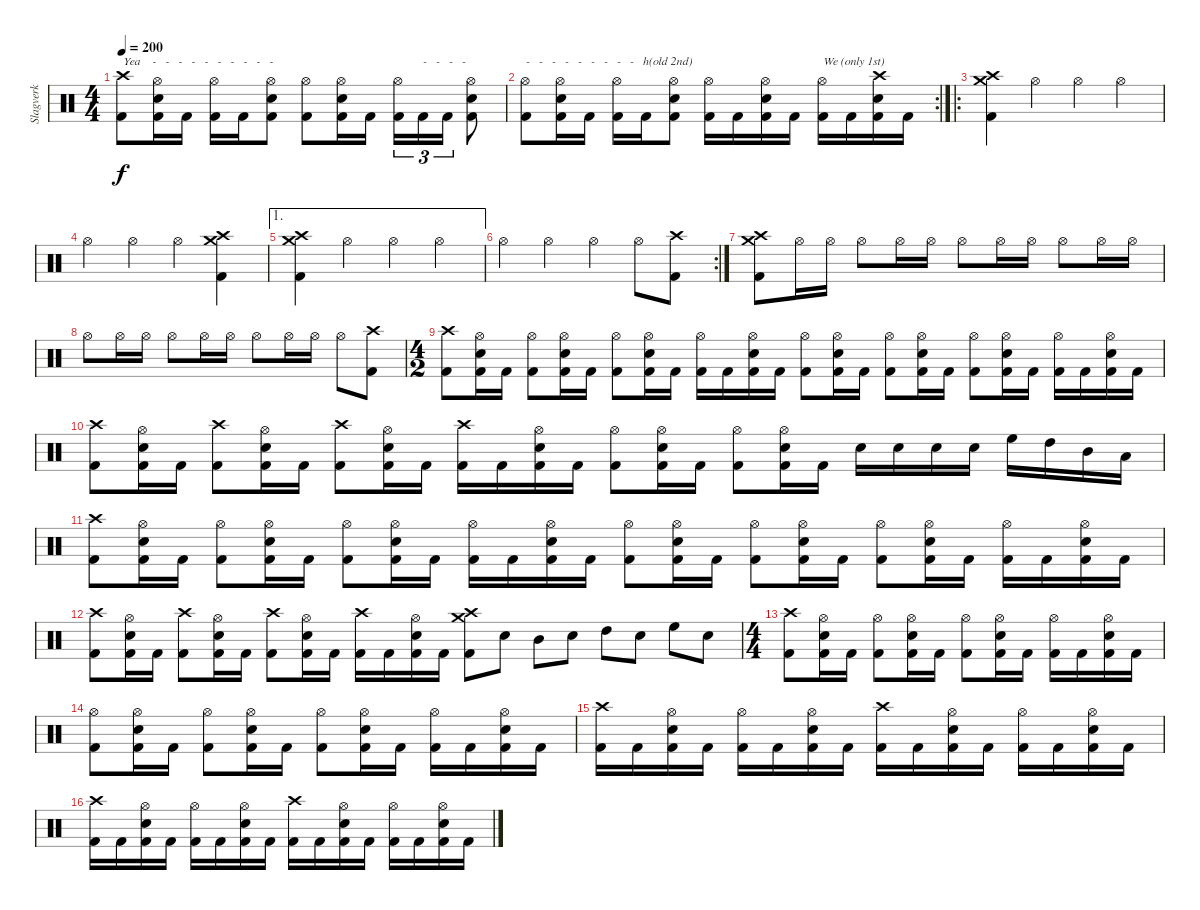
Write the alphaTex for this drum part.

\track ("Slagverk" "Slagverk") {instrument percussion}
\staff {score}
\articulation defaults
\ts (4 4)
\tempo 200
\clef neutral
\ks c
("Kick (hit) 2" "Crash high (hit)").8{txt "Yea    -   -   -   -   -   -   -   -   -   -     " dy f} ("Kick (hit) 2" "Electric Snare (hit)" "Hi-Hat (open)").16 "Kick (hit) 2".16 ("Kick (hit) 2" "Hi-Hat (open)").16 "Kick (hit) 2".16 ("Kick (hit) 2" "Electric Snare (hit)" "Hi-Hat (open)").8 ("Kick (hit) 2" "Hi-Hat (open)").8 ("Kick (hit) 2" "Electric Snare (hit)" "Hi-Hat (open)").16 "Kick (hit) 2".16 ("Kick (hit) 2" "Hi-Hat (open)").16{tu (3 2)} "Kick (hit) 2".16{tu (3 2) txt "-   -   -   -"} "Kick (hit) 2".16{tu (3 2)} ("Kick (hit) 2" "Electric Snare (hit)" "Hi-Hat (open)").8 |
\rc 2
("Kick (hit) 2" "Hi-Hat (open)").8{txt "-   -   -   -   -   -   -   -   -   h(old 2nd)"} ("Kick (hit) 2" "Electric Snare (hit)" "Hi-Hat (open)").16 "Kick (hit) 2".16 ("Kick (hit) 2" "Hi-Hat (open)").16 "Kick (hit) 2".16 ("Kick (hit) 2" "Electric Snare (hit)" "Hi-Hat (open)").8 ("Kick (hit) 2" "Hi-Hat (open)").16 "Kick (hit) 2".16 ("Kick (hit) 2" "Electric Snare (hit)" "Hi-Hat (open)").16 "Kick (hit) 2".16 ("Kick (hit) 2" "Hi-Hat (open)").16{txt "We (only 1st)"} "Kick (hit) 2".16 ("Kick (hit) 2" "Electric Snare (hit)" "Crash high (hit)").16 "Kick (hit) 2".16 |
\ro
("Kick (hit) 2" "Crash high (hit)" "Crash medium (hit)").4 "Hi-Hat (open)".4 "Hi-Hat (open)".4 "Hi-Hat (open)".4 |
"Hi-Hat (open)".4 "Hi-Hat (open)".4 "Hi-Hat (open)".4 ("Kick (hit) 2" "Crash medium (hit)" "Crash high (hit)").4 |
\ae 1
("Kick (hit) 2" "Crash high (hit)" "Crash medium (hit)").4 "Hi-Hat (open)".4 "Hi-Hat (open)".4 "Hi-Hat (open)".4 |
\rc 2 "Hi-Hat (open)".4 "Hi-Hat (open)".4 "Hi-Hat (open)".4 "Hi-Hat (open)".8
("Kick (hit) 2" "Crash high (hit)").8 |
("Kick (hit) 2" "Crash high (hit)" "Crash medium (hit)").8 "Hi-Hat (open)".16 "Hi-Hat (open)".16 "Hi-Hat (open)".8 "Hi-Hat (open)".16 "Hi-Hat (open)".16 "Hi-Hat (open)".8 "Hi-Hat (open)".16 "Hi-Hat (open)".16 "Hi-Hat (open)".8 "Hi-Hat (open)".16 "Hi-Hat (open)".16 |
"Hi-Hat (open)".8 "Hi-Hat (open)".16 "Hi-Hat (open)".16 "Hi-Hat (open)".8 "Hi-Hat (open)".16 "Hi-Hat (open)".16 "Hi-Hat (open)".8 "Hi-Hat (open)".16 "Hi-Hat (open)".16 "Hi-Hat (open)".8 ("Kick (hit) 2" "Crash high (hit)").8 |
\ts (4 2)
("Kick (hit) 2" "Crash high (hit)").8 ("Kick (hit) 2" "Electric Snare (hit)" "Hi-Hat (open)").16 "Kick (hit) 2".16 ("Kick (hit) 2" "Hi-Hat (open)").8 ("Kick (hit) 2" "Electric Snare (hit)" "Hi-Hat (open)").16 "Kick (hit) 2".16 ("Kick (hit) 2" "Hi-Hat (open)").8 ("Kick (hit) 2" "Electric Snare (hit)" "Hi-Hat (open)").16 "Kick (hit) 2".16 ("Kick (hit) 2" "Hi-Hat (open)").16 "Kick (hit) 2".16 ("Kick (hit) 2" "Electric Snare (hit)" "Hi-Hat (open)").16 "Kick (hit) 2".16 ("Kick (hit) 2" "Hi-Hat (open)").8 ("Kick (hit) 2" "Electric Snare (hit)" "Hi-Hat (open)").16 "Kick (hit) 2".16 ("Kick (hit) 2" "Hi-Hat (open)").8 ("Kick (hit) 2" "Electric Snare (hit)" "Hi-Hat (open)").16 "Kick (hit) 2".16 ("Kick (hit) 2" "Hi-Hat (open)").8 ("Kick (hit) 2" "Electric Snare (hit)" "Hi-Hat (open)").16 "Kick (hit) 2".16 ("Kick (hit) 2" "Hi-Hat (open)").16 "Kick (hit) 2".16 ("Kick (hit) 2" "Electric Snare (hit)" "Hi-Hat (open)").16 "Kick (hit) 2".16 |
("Kick (hit) 2" "Crash high (hit)").8 ("Kick (hit) 2" "Electric Snare (hit)" "Hi-Hat (open)").16 "Kick (hit) 2".16 ("Kick (hit) 2" "Crash high (hit)").8 ("Kick (hit) 2" "Electric Snare (hit)" "Hi-Hat (open)").16 "Kick (hit) 2".16 ("Kick (hit) 2" "Crash high (hit)").8 ("Kick (hit) 2" "Electric Snare (hit)" "Hi-Hat (open)").16 "Kick (hit) 2".16 ("Kick (hit) 2" "Crash high (hit)").16 "Kick (hit) 2".16 ("Kick (hit) 2" "Electric Snare (hit)" "Hi-Hat (open)").16 "Kick (hit) 2".16 ("Kick (hit) 2" "Hi-Hat (open)").8 ("Kick (hit) 2" "Electric Snare (hit)" "Hi-Hat (open)").16 "Kick (hit) 2".16 ("Kick (hit) 2" "Hi-Hat (open)").8 ("Kick (hit) 2" "Electric Snare (hit)" "Hi-Hat (open)").16 "Kick (hit) 2".16 "Electric Snare (hit)".16 "Electric Snare (hit)".16 "Electric Snare (hit)".16 "Electric Snare (hit)".16 "High Floor Tom (hit)".16 "High Tom (hit)".16 "Mid Tom (hit)".16 "Low Tom (hit)".16 |
("Kick (hit) 2" "Crash high (hit)").8 ("Kick (hit) 2" "Electric Snare (hit)" "Hi-Hat (open)").16 "Kick (hit) 2".16 ("Kick (hit) 2" "Hi-Hat (open)").8 ("Kick (hit) 2" "Electric Snare (hit)" "Hi-Hat (open)").16 "Kick (hit) 2".16 ("Kick (hit) 2" "Hi-Hat (open)").8 ("Kick (hit) 2" "Electric Snare (hit)" "Hi-Hat (open)").16 "Kick (hit) 2".16 ("Kick (hit) 2" "Hi-Hat (open)").16 "Kick (hit) 2".16 ("Kick (hit) 2" "Electric Snare (hit)" "Hi-Hat (open)").16 "Kick (hit) 2".16 ("Kick (hit) 2" "Hi-Hat (open)").8 ("Kick (hit) 2" "Electric Snare (hit)" "Hi-Hat (open)").16 "Kick (hit) 2".16 ("Kick (hit) 2" "Hi-Hat (open)").8 ("Kick (hit) 2" "Electric Snare (hit)" "Hi-Hat (open)").16 "Kick (hit) 2".16 ("Kick (hit) 2" "Hi-Hat (open)").8 ("Kick (hit) 2" "Electric Snare (hit)" "Hi-Hat (open)").16 "Kick (hit) 2".16 ("Kick (hit) 2" "Hi-Hat (open)").16 "Kick (hit) 2".16 ("Kick (hit) 2" "Electric Snare (hit)" "Hi-Hat (open)").16 "Kick (hit) 2".16 |
("Kick (hit) 2" "Crash high (hit)").8 ("Kick (hit) 2" "Electric Snare (hit)" "Hi-Hat (open)").16 "Kick (hit) 2".16 ("Kick (hit) 2" "Crash high (hit)").8 ("Kick (hit) 2" "Electric Snare (hit)" "Hi-Hat (open)").16 "Kick (hit) 2".16 ("Kick (hit) 2" "Crash high (hit)").8 ("Kick (hit) 2" "Electric Snare (hit)" "Hi-Hat (open)").16 "Kick (hit) 2".16 ("Kick (hit) 2" "Crash high (hit)").16 "Kick (hit) 2".16 ("Kick (hit) 2" "Electric Snare (hit)" "Hi-Hat (open)").16 "Kick (hit) 2".16 ("Kick (hit) 2" "Crash high (hit)" "Crash medium (hit)").8 "Electric Snare (hit)".8 "Mid Tom (hit)".8 "Electric Snare (hit)".8 "High Tom (hit)".8 "Electric Snare (hit)".8 "High Floor Tom (hit)".8 "Electric Snare (hit)".8 |
\ts (4 4)
("Kick (hit) 2" "Crash high (hit)").8 ("Kick (hit) 2" "Electric Snare (hit)" "Hi-Hat (open)").16 "Kick (hit) 2".16 ("Kick (hit) 2" "Hi-Hat (open)").8 ("Kick (hit) 2" "Electric Snare (hit)" "Hi-Hat (open)").16 "Kick (hit) 2".16 ("Kick (hit) 2" "Hi-Hat (open)").8 ("Kick (hit) 2" "Electric Snare (hit)" "Hi-Hat (open)").16 "Kick (hit) 2".16 ("Kick (hit) 2" "Hi-Hat (open)").16 "Kick (hit) 2".16 ("Kick (hit) 2" "Electric Snare (hit)" "Hi-Hat (open)").16 "Kick (hit) 2".16 |
("Kick (hit) 2" "Hi-Hat (open)").8 ("Kick (hit) 2" "Electric Snare (hit)" "Hi-Hat (open)").16 "Kick (hit) 2".16 ("Kick (hit) 2" "Hi-Hat (open)").8 ("Kick (hit) 2" "Electric Snare (hit)" "Hi-Hat (open)").16 "Kick (hit) 2".16 ("Kick (hit) 2" "Hi-Hat (open)").8 ("Kick (hit) 2" "Electric Snare (hit)" "Hi-Hat (open)").16 "Kick (hit) 2".16 ("Kick (hit) 2" "Hi-Hat (open)").16 "Kick (hit) 2".16 ("Kick (hit) 2" "Electric Snare (hit)" "Hi-Hat (open)").16 "Kick (hit) 2".16 |
("Kick (hit) 2" "Crash high (hit)").16 "Kick (hit) 2".16 ("Kick (hit) 2" "Electric Snare (hit)" "Hi-Hat (open)").16 "Kick (hit) 2".16 ("Kick (hit) 2" "Hi-Hat (open)").16 "Kick (hit) 2".16 ("Kick (hit) 2" "Electric Snare (hit)" "Hi-Hat (open)").16 "Kick (hit) 2".16 ("Kick (hit) 2" "Crash high (hit)").16 "Kick (hit) 2".16 ("Kick (hit) 2" "Electric Snare (hit)" "Hi-Hat (open)").16 "Kick (hit) 2".16 ("Kick (hit) 2" "Hi-Hat (open)").16 "Kick (hit) 2".16 ("Kick (hit) 2" "Electric Snare (hit)" "Hi-Hat (open)").16 "Kick (hit) 2".16 |
("Kick (hit) 2" "Crash high (hit)").16 "Kick (hit) 2".16 ("Kick (hit) 2" "Electric Snare (hit)" "Hi-Hat (open)").16 "Kick (hit) 2".16 ("Kick (hit) 2" "Hi-Hat (open)").16 "Kick (hit) 2".16 ("Kick (hit) 2" "Electric Snare (hit)" "Hi-Hat (open)").16 "Kick (hit) 2".16 ("Kick (hit) 2" "Crash high (hit)").16 "Kick (hit) 2".16 ("Kick (hit) 2" "Electric Snare (hit)" "Hi-Hat (open)").16 "Kick (hit) 2".16 ("Kick (hit) 2" "Hi-Hat (open)").16 "Kick (hit) 2".16 ("Kick (hit) 2" "Electric Snare (hit)" "Hi-Hat (open)").16 "Kick (hit) 2".16
